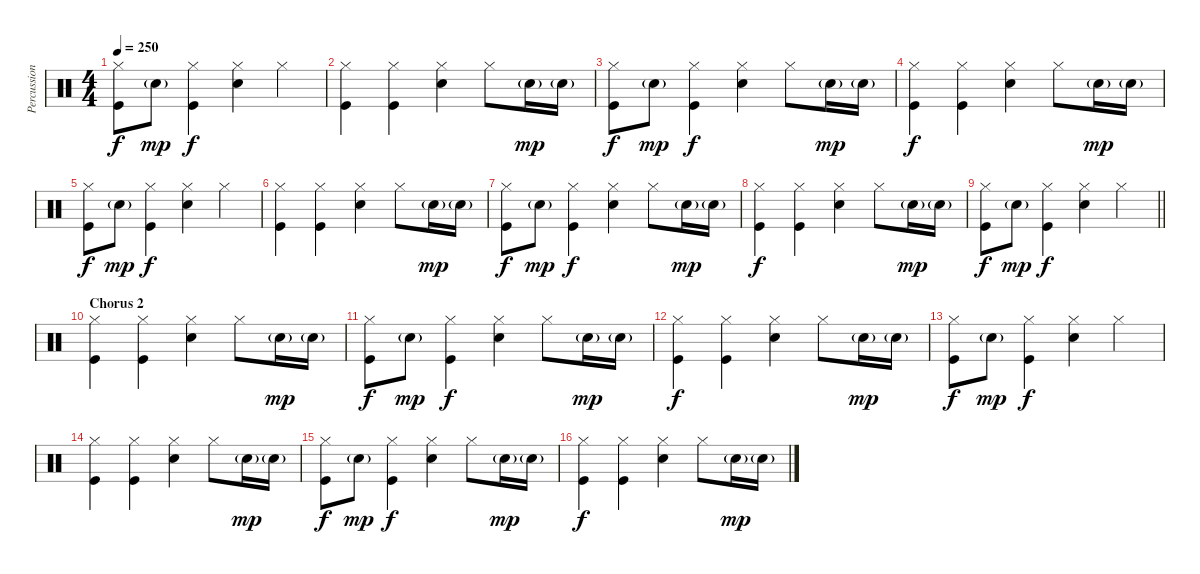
\track ("Percussion" "Percussion") {instrument percussion}
\staff {score}
\articulation defaults
\ts (4 4)
\tempo 250
\clef neutral
\ks c
("Hi-Hat (closed)" "Kick (hit)").8{dy f} "Snare (hit) 2"{g}.8{dy mp} ("Hi-Hat (closed)" "Kick (hit)").4{dy f} ("Hi-Hat (closed)" "Snare (hit) 2").4 "Hi-Hat (closed)".4 |
("Hi-Hat (closed)" "Kick (hit)").4 ("Hi-Hat (closed)" "Kick (hit)").4 ("Hi-Hat (closed)" "Snare (hit) 2").4 "Hi-Hat (closed)".8 "Snare (hit) 2"{g}.16{dy mp} "Snare (hit) 2"{g}.16 |
("Hi-Hat (closed)" "Kick (hit)").8{dy f} "Snare (hit) 2"{g}.8{dy mp} ("Hi-Hat (closed)" "Kick (hit)").4{dy f} ("Hi-Hat (closed)" "Snare (hit) 2").4 "Hi-Hat (closed)".8 "Snare (hit) 2"{g}.16{dy mp} "Snare (hit) 2"{g}.16 |
("Hi-Hat (closed)" "Kick (hit)").4{dy f} ("Hi-Hat (closed)" "Kick (hit)").4 ("Hi-Hat (closed)" "Snare (hit) 2").4 "Hi-Hat (closed)".8 "Snare (hit) 2"{g}.16{dy mp} "Snare (hit) 2"{g}.16 |
("Hi-Hat (closed)" "Kick (hit)").8{dy f} "Snare (hit) 2"{g}.8{dy mp} ("Hi-Hat (closed)" "Kick (hit)").4{dy f} ("Hi-Hat (closed)" "Snare (hit) 2").4 "Hi-Hat (closed)".4 |
("Hi-Hat (closed)" "Kick (hit)").4 ("Hi-Hat (closed)" "Kick (hit)").4 ("Hi-Hat (closed)" "Snare (hit) 2").4 "Hi-Hat (closed)".8 "Snare (hit) 2"{g}.16{dy mp} "Snare (hit) 2"{g}.16 |
("Hi-Hat (closed)" "Kick (hit)").8{dy f} "Snare (hit) 2"{g}.8{dy mp} ("Hi-Hat (closed)" "Kick (hit)").4{dy f} ("Hi-Hat (closed)" "Snare (hit) 2").4 "Hi-Hat (closed)".8 "Snare (hit) 2"{g}.16{dy mp} "Snare (hit) 2"{g}.16 |
("Hi-Hat (closed)" "Kick (hit)").4{dy f} ("Hi-Hat (closed)" "Kick (hit)").4 ("Hi-Hat (closed)" "Snare (hit) 2").4 "Hi-Hat (closed)".8 "Snare (hit) 2"{g}.16{dy mp} "Snare (hit) 2"{g}.16 |
\barLineRight lightlight
("Hi-Hat (closed)" "Kick (hit)").8{dy f} "Snare (hit) 2"{g}.8{dy mp} ("Hi-Hat (closed)" "Kick (hit)").4{dy f} ("Hi-Hat (closed)" "Snare (hit) 2").4 "Hi-Hat (closed)".4 |
\section ("" "Chorus 2")
("Hi-Hat (closed)" "Kick (hit)").4 ("Hi-Hat (closed)" "Kick (hit)").4 ("Hi-Hat (closed)" "Snare (hit) 2").4 "Hi-Hat (closed)".8 "Snare (hit) 2"{g}.16{dy mp} "Snare (hit) 2"{g}.16 |
("Hi-Hat (closed)" "Kick (hit)").8{dy f} "Snare (hit) 2"{g}.8{dy mp} ("Hi-Hat (closed)" "Kick (hit)").4{dy f} ("Hi-Hat (closed)" "Snare (hit) 2").4 "Hi-Hat (closed)".8 "Snare (hit) 2"{g}.16{dy mp} "Snare (hit) 2"{g}.16 |
("Hi-Hat (closed)" "Kick (hit)").4{dy f} ("Hi-Hat (closed)" "Kick (hit)").4 ("Hi-Hat (closed)" "Snare (hit) 2").4 "Hi-Hat (closed)".8 "Snare (hit) 2"{g}.16{dy mp} "Snare (hit) 2"{g}.16 |
("Hi-Hat (closed)" "Kick (hit)").8{dy f} "Snare (hit) 2"{g}.8{dy mp} ("Hi-Hat (closed)" "Kick (hit)").4{dy f} ("Hi-Hat (closed)" "Snare (hit) 2").4 "Hi-Hat (closed)".4 |
("Hi-Hat (closed)" "Kick (hit)").4 ("Hi-Hat (closed)" "Kick (hit)").4 ("Hi-Hat (closed)" "Snare (hit) 2").4 "Hi-Hat (closed)".8 "Snare (hit) 2"{g}.16{dy mp} "Snare (hit) 2"{g}.16 |
("Hi-Hat (closed)" "Kick (hit)").8{dy f} "Snare (hit) 2"{g}.8{dy mp} ("Hi-Hat (closed)" "Kick (hit)").4{dy f} ("Hi-Hat (closed)" "Snare (hit) 2").4 "Hi-Hat (closed)".8 "Snare (hit) 2"{g}.16{dy mp} "Snare (hit) 2"{g}.16 |
("Hi-Hat (closed)" "Kick (hit)").4{dy f} ("Hi-Hat (closed)" "Kick (hit)").4 ("Hi-Hat (closed)" "Snare (hit) 2").4 "Hi-Hat (closed)".8 "Snare (hit) 2"{g}.16{dy mp} "Snare (hit) 2"{g}.16
